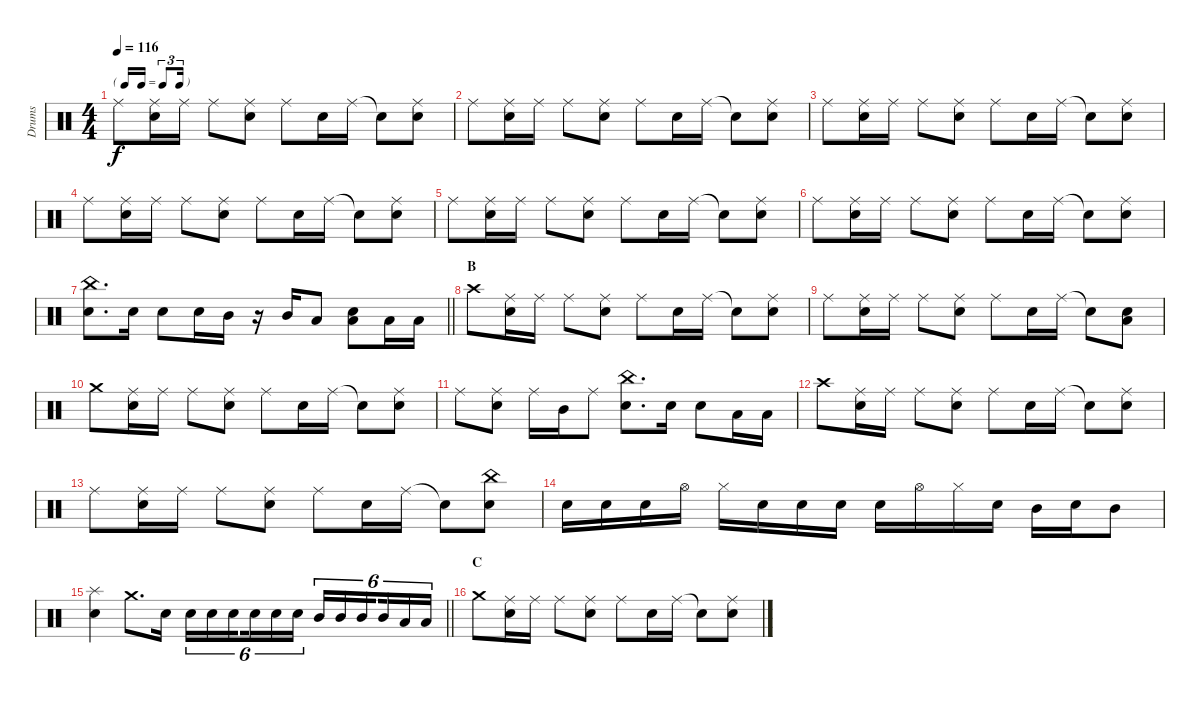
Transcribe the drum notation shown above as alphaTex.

\track ("Drums" "Drums") {instrument percussion}
\staff {score}
\articulation defaults
\ts (4 4)
\tf triplet16th
\tempo 116
\clef neutral
\ks c "Ride (middle)".8{dy f}
("Ride (middle)" "Snare (hit) 2").16 "Ride (middle)".16 "Ride (middle)".8 ("Ride (middle)" "Snare (hit) 2").8 "Ride (middle)".8 "Snare (hit) 2".16 "Ride (middle)".16 "Snare (hit)"{t}.8 ("Ride (middle)" "Snare (hit) 2").8 |
"Ride (middle)".8 ("Ride (middle)" "Snare (hit) 2").16 "Ride (middle)".16 "Ride (middle)".8 ("Ride (middle)" "Snare (hit) 2").8 "Ride (middle)".8 "Snare (hit) 2".16 "Ride (middle)".16 "Snare (hit)"{t}.8 ("Ride (middle)" "Snare (hit) 2").8 |
"Ride (middle)".8 ("Ride (middle)" "Snare (hit) 2").16 "Ride (middle)".16 "Ride (middle)".8 ("Ride (middle)" "Snare (hit) 2").8 "Ride (middle)".8 "Snare (hit) 2".16 "Ride (middle)".16 "Snare (hit)"{t}.8 ("Ride (middle)" "Snare (hit) 2").8 |
"Ride (middle)".8 ("Ride (middle)" "Snare (hit) 2").16 "Ride (middle)".16 "Ride (middle)".8 ("Ride (middle)" "Snare (hit) 2").8 "Ride (middle)".8 "Snare (hit) 2".16 "Ride (middle)".16 "Snare (hit)"{t}.8 ("Ride (middle)" "Snare (hit) 2").8 |
"Ride (middle)".8 ("Ride (middle)" "Snare (hit) 2").16 "Ride (middle)".16 "Ride (middle)".8 ("Ride (middle)" "Snare (hit) 2").8 "Ride (middle)".8 "Snare (hit) 2".16 "Ride (middle)".16 "Snare (hit)"{t}.8 ("Ride (middle)" "Snare (hit) 2").8 |
"Ride (middle)".8 ("Ride (middle)" "Snare (hit) 2").16 "Ride (middle)".16 "Ride (middle)".8 ("Ride (middle)" "Snare (hit) 2").8 "Ride (middle)".8 "Snare (hit) 2".16 "Ride (middle)".16 "Snare (hit)"{t}.8 ("Ride (middle)" "Snare (hit) 2").8 |
\barLineRight lightlight
("China (hit)" "Snare (hit) 2").8{d} "Snare (hit) 2".16 "Snare (hit) 2".8 "Snare (hit) 2".16 "Mid Tom (hit)".16 r.16 "Mid Tom (hit)".16 "Low Tom (hit)".8 ("Snare (hit) 2" "Low Tom (hit)").8 "Low Tom (hit)".16 "Low Tom (hit)".16 |
\section ("" "B")
"Crash high (hit)".8 ("Ride (middle)" "Snare (hit) 2").16 "Ride (middle)".16 "Ride (middle)".8 ("Ride (middle)" "Snare (hit) 2").8 "Ride (middle)".8 "Snare (hit) 2".16 "Ride (middle)".16 "Snare (hit)"{t}.8 ("Ride (middle)" "Snare (hit) 2").8 |
"Ride (middle)".8 ("Ride (middle)" "Snare (hit) 2").16 "Ride (middle)".16 "Ride (middle)".8 ("Ride (middle)" "Snare (hit) 2").8 "Ride (middle)".8 "Snare (hit) 2".16 "Ride (middle)".16 "Snare (hit)"{t}.8 ("Snare (hit) 2" "Low Tom (hit)").8 |
"Crash medium (hit)".8 ("Ride (middle)" "Snare (hit) 2").16 "Ride (middle)".16 "Ride (middle)".8 ("Ride (middle)" "Snare (hit) 2").8 "Ride (middle)".8 "Snare (hit) 2".16 "Ride (middle)".16 "Snare (hit)"{t}.8 ("Ride (middle)" "Snare (hit) 2").8 |
"Ride (middle)".8 ("Ride (middle)" "Snare (hit) 2").8 "Ride (middle)".16 "Mid Tom (hit)".16 "Ride (middle)".8 ("China (hit)" "Snare (hit) 2").8{d} "Snare (hit) 2".16 "Snare (hit) 2".8 "Low Tom (hit)".16 "Low Tom (hit)".16 |
"Crash high (hit)".8 ("Ride (middle)" "Snare (hit) 2").16 "Ride (middle)".16 "Ride (middle)".8 ("Ride (middle)" "Snare (hit) 2").8 "Ride (middle)".8 "Snare (hit) 2".16 "Ride (middle)".16 "Snare (hit)"{t}.8 ("Ride (middle)" "Snare (hit) 2").8 |
"Ride (middle)".8 ("Ride (middle)" "Snare (hit) 2").16 "Ride (middle)".16 "Ride (middle)".8 ("Ride (middle)" "Snare (hit) 2").8 "Ride (middle)".8 "Snare (hit) 2".16 "Ride (middle)".16 "Snare (hit)"{t}.8 ("China (hit)" "Snare (hit) 2").8 |
"Snare (hit) 2".16 "Snare (hit) 2".16 "Snare (hit) 2".16 "Hi-Hat (open)".16 "Hi-Hat (closed)".16 "Snare (hit) 2".16 "Snare (hit) 2".16 "Snare (hit) 2".16 "Snare (hit) 2".16 "Hi-Hat (open)".16 "Hi-Hat (closed)".16 "Snare (hit) 2".16 "Mid Tom (hit)".16 "Snare (hit) 2".16 "Mid Tom (hit)".8 |
\barLineRight lightlight
("Splash (hit)" "Snare (hit) 2").4 "Crash medium (hit)".8{d} "Snare (hit) 2".16 "Snare (hit) 2".16{tu (6 4)} "Snare (hit) 2".16{tu (6 4)} "Snare (hit) 2".16{tu (6 4) beam splitsecondary} "Snare (hit) 2".16{tu (6 4)} "Snare (hit) 2".16{tu (6 4)} "Snare (hit) 2".16{tu (6 4)} "Mid Tom (hit)".16{tu (6 4)} "Mid Tom (hit)".16{tu (6 4)} "Mid Tom (hit)".16{tu (6 4) beam splitsecondary} "Mid Tom (hit)".16{tu (6 4)} "Low Tom (hit)".16{tu (6 4)} "Low Tom (hit)".16{tu (6 4)} |
\section ("" "C")
"Crash medium (hit)".8 ("Ride (middle)" "Snare (hit) 2").16 "Ride (middle)".16 "Ride (middle)".8 ("Ride (middle)" "Snare (hit) 2").8 "Ride (middle)".8 "Snare (hit) 2".16 "Ride (middle)".16 "Snare (hit)"{t}.8 ("Ride (middle)" "Snare (hit) 2").8
